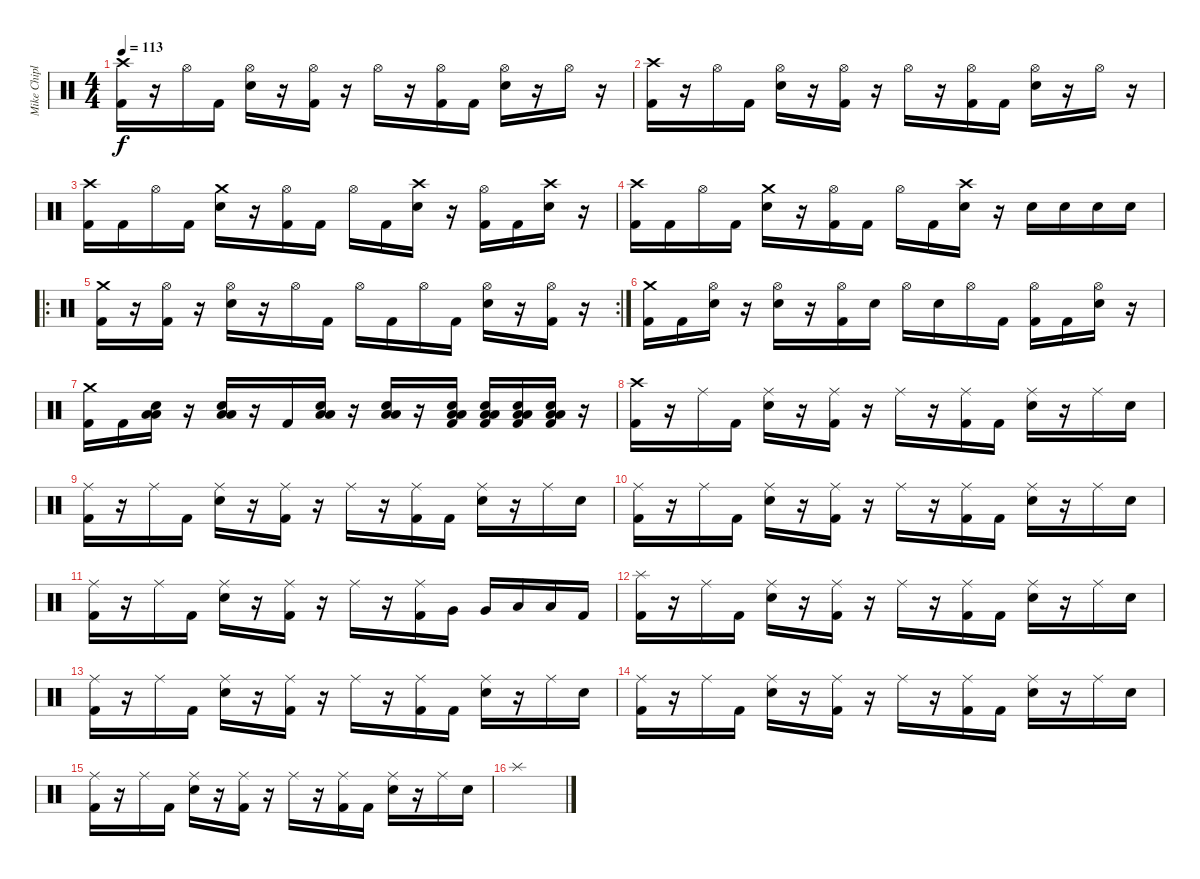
\track ("Mike Chiplin" "Mike Chipl") {instrument percussion}
\staff {score}
\articulation defaults
\ts (4 4)
\tempo 113
\clef neutral
\ks c
("Crash high (hit)" "Kick (hit) 2").16{dy f} r.16 "Hi-Hat (open)".16 "Kick (hit) 2".16 ("Hi-Hat (open)" "Snare (hit) 2").16 r.16 ("Hi-Hat (open)" "Kick (hit) 2").16 r.16 "Hi-Hat (open)".16 r.16 ("Hi-Hat (open)" "Kick (hit) 2").16 "Kick (hit) 2".16 ("Hi-Hat (open)" "Snare (hit) 2").16 r.16 "Hi-Hat (open)".16 r.16 |
("Crash high (hit)" "Kick (hit) 2").16 r.16 "Hi-Hat (open)".16 "Kick (hit) 2".16 ("Hi-Hat (open)" "Snare (hit) 2").16 r.16 ("Hi-Hat (open)" "Kick (hit) 2").16 r.16 "Hi-Hat (open)".16 r.16 ("Hi-Hat (open)" "Kick (hit) 2").16 "Kick (hit) 2".16 ("Hi-Hat (open)" "Snare (hit) 2").16 r.16 "Hi-Hat (open)".16 r.16 |
("Crash high (hit)" "Kick (hit) 2").16 "Kick (hit) 2".16 "Hi-Hat (open)".16 "Kick (hit) 2".16 ("Crash medium (hit)" "Snare (hit) 2").16 r.16 ("Hi-Hat (open)" "Kick (hit) 2").16 "Kick (hit) 2".16 "Hi-Hat (open)".16 "Kick (hit) 2".16 ("Crash high (hit)" "Snare (hit) 2").16 r.16 ("Hi-Hat (open)" "Kick (hit) 2").16 "Kick (hit) 2".16 ("Crash high (hit)" "Snare (hit) 2").16 r.16 |
("Crash high (hit)" "Kick (hit) 2").16 "Kick (hit) 2".16 "Hi-Hat (open)".16 "Kick (hit) 2".16 ("Crash medium (hit)" "Snare (hit) 2").16 r.16 ("Hi-Hat (open)" "Kick (hit) 2").16 "Kick (hit) 2".16 "Hi-Hat (open)".16 "Kick (hit) 2".16 ("Crash high (hit)" "Snare (hit) 2").16 r.16 "Snare (hit) 2".16 "Snare (hit) 2".16 "Snare (hit) 2".16 "Snare (hit) 2".16 |
\ro
\rc 2
("Crash medium (hit)" "Kick (hit) 2").16 r.16 ("Hi-Hat (open)" "Kick (hit) 2").16 r.16 ("Hi-Hat (open)" "Snare (hit) 2").16 r.16 "Hi-Hat (open)".16 "Kick (hit) 2".16 "Hi-Hat (open)".16 "Kick (hit) 2".16 "Hi-Hat (open)".16 "Kick (hit) 2".16 ("Hi-Hat (open)" "Snare (hit) 2").16 r.16 ("Hi-Hat (open)" "Kick (hit) 2").16 r.16 |
("Crash medium (hit)" "Kick (hit) 2").16 "Kick (hit) 2".16 ("Hi-Hat (open)" "Snare (hit) 2").16 r.16 ("Hi-Hat (open)" "Snare (hit) 2").16 r.16 ("Hi-Hat (open)" "Kick (hit) 2").16 "Snare (hit) 2".16 "Hi-Hat (open)".16 "Snare (hit) 2".16 "Hi-Hat (open)".16 "Kick (hit) 2".16 ("Hi-Hat (open)" "Kick (hit) 2").16 "Kick (hit) 2".16 ("Hi-Hat (open)" "Snare (hit) 2").16 r.16 |
("Crash medium (hit)" "Kick (hit) 2").16 "Kick (hit) 2".16 ("Snare (hit) 2" "Low Floor Tom (hit)" "Low Floor Tom (hit)").16 r.16 ("Snare (hit) 2" "Low Floor Tom (hit)" "Low Floor Tom (hit)").16 r.16 "Kick (hit) 2".16 ("Snare (hit) 2" "Low Floor Tom (hit)" "Low Floor Tom (hit)").16 r.16 ("Snare (hit) 2" "Low Floor Tom (hit)" "Low Floor Tom (hit)").16 r.16 ("Snare (hit) 2" "Low Floor Tom (hit)" "Low Floor Tom (hit)" "Kick (hit) 2").16 ("Snare (hit) 2" "Low Floor Tom (hit)" "Low Floor Tom (hit)" "Kick (hit) 2").16 ("Snare (hit) 2" "Low Floor Tom (hit)" "Low Floor Tom (hit)" "Kick (hit) 2").16 ("Snare (hit) 2" "Low Floor Tom (hit)" "Low Floor Tom (hit)" "Kick (hit) 2").16 r.16 |
("Crash high (hit)" "Kick (hit) 2").16 r.16 "Ride (middle)".16 "Kick (hit) 2".16 ("Ride (middle)" "Snare (hit) 2").16 r.16 ("Ride (middle)" "Kick (hit) 2").16 r.16 "Ride (middle)".16 r.16 ("Ride (middle)" "Kick (hit) 2").16 "Kick (hit) 2".16 ("Ride (middle)" "Snare (hit) 2").16 r.16 "Ride (middle)".16 "Snare (hit) 2".16 |
("Ride (middle)" "Kick (hit) 2").16 r.16 "Ride (middle)".16 "Kick (hit) 2".16 ("Ride (middle)" "Snare (hit) 2").16 r.16 ("Ride (middle)" "Kick (hit) 2").16 r.16 "Ride (middle)".16 r.16 ("Ride (middle)" "Kick (hit) 2").16 "Kick (hit) 2".16 ("Ride (middle)" "Snare (hit) 2").16 r.16 "Ride (middle)".16 "Snare (hit) 2".16 |
("Ride (middle)" "Kick (hit) 2").16 r.16 "Ride (middle)".16 "Kick (hit) 2".16 ("Ride (middle)" "Snare (hit) 2").16 r.16 ("Ride (middle)" "Kick (hit) 2").16 r.16 "Ride (middle)".16 r.16 ("Ride (middle)" "Kick (hit) 2").16 "Kick (hit) 2".16 ("Ride (middle)" "Snare (hit) 2").16 r.16 "Ride (middle)".16 "Snare (hit) 2".16 |
("Ride (middle)" "Kick (hit) 2").16 r.16 "Ride (middle)".16 "Kick (hit) 2".16 ("Ride (middle)" "Snare (hit) 2").16 r.16 ("Ride (middle)" "Kick (hit) 2").16 r.16 "Ride (middle)".16 r.16 ("Ride (middle)" "Kick (hit) 2").16 "Very Low Tom (hit)".16 "Very Low Tom (hit)".16 "Low Floor Tom (hit)".16 "Low Floor Tom (hit)".16 "Kick (hit) 2".16 |
("Splash (hit)" "Kick (hit) 2").16 r.16 "Ride (middle)".16 "Kick (hit) 2".16 ("Ride (middle)" "Snare (hit) 2").16 r.16 ("Ride (middle)" "Kick (hit) 2").16 r.16 "Ride (middle)".16 r.16 ("Ride (middle)" "Kick (hit) 2").16 "Kick (hit) 2".16 ("Ride (middle)" "Snare (hit) 2").16 r.16 "Ride (middle)".16 "Snare (hit) 2".16 |
("Ride (middle)" "Kick (hit) 2").16 r.16 "Ride (middle)".16 "Kick (hit) 2".16 ("Ride (middle)" "Snare (hit) 2").16 r.16 ("Ride (middle)" "Kick (hit) 2").16 r.16 "Ride (middle)".16 r.16 ("Ride (middle)" "Kick (hit) 2").16 "Kick (hit) 2".16 ("Ride (middle)" "Snare (hit) 2").16 r.16 "Ride (middle)".16 "Snare (hit) 2".16 |
("Ride (middle)" "Kick (hit) 2").16 r.16 "Ride (middle)".16 "Kick (hit) 2".16 ("Ride (middle)" "Snare (hit) 2").16 r.16 ("Ride (middle)" "Kick (hit) 2").16 r.16 "Ride (middle)".16 r.16 ("Ride (middle)" "Kick (hit) 2").16 "Kick (hit) 2".16 ("Ride (middle)" "Snare (hit) 2").16 r.16 "Ride (middle)".16 "Snare (hit) 2".16 |
("Ride (middle)" "Kick (hit) 2").16 r.16 "Ride (middle)".16 "Kick (hit) 2".16 ("Ride (middle)" "Snare (hit) 2").16 r.16 ("Ride (middle)" "Kick (hit) 2").16 r.16 "Ride (middle)".16 r.16 ("Ride (middle)" "Kick (hit) 2").16 "Kick (hit) 2".16 ("Ride (middle)" "Snare (hit) 2").16 r.16 "Ride (middle)".16 "Snare (hit) 2".16 |
"Splash (hit)".1
